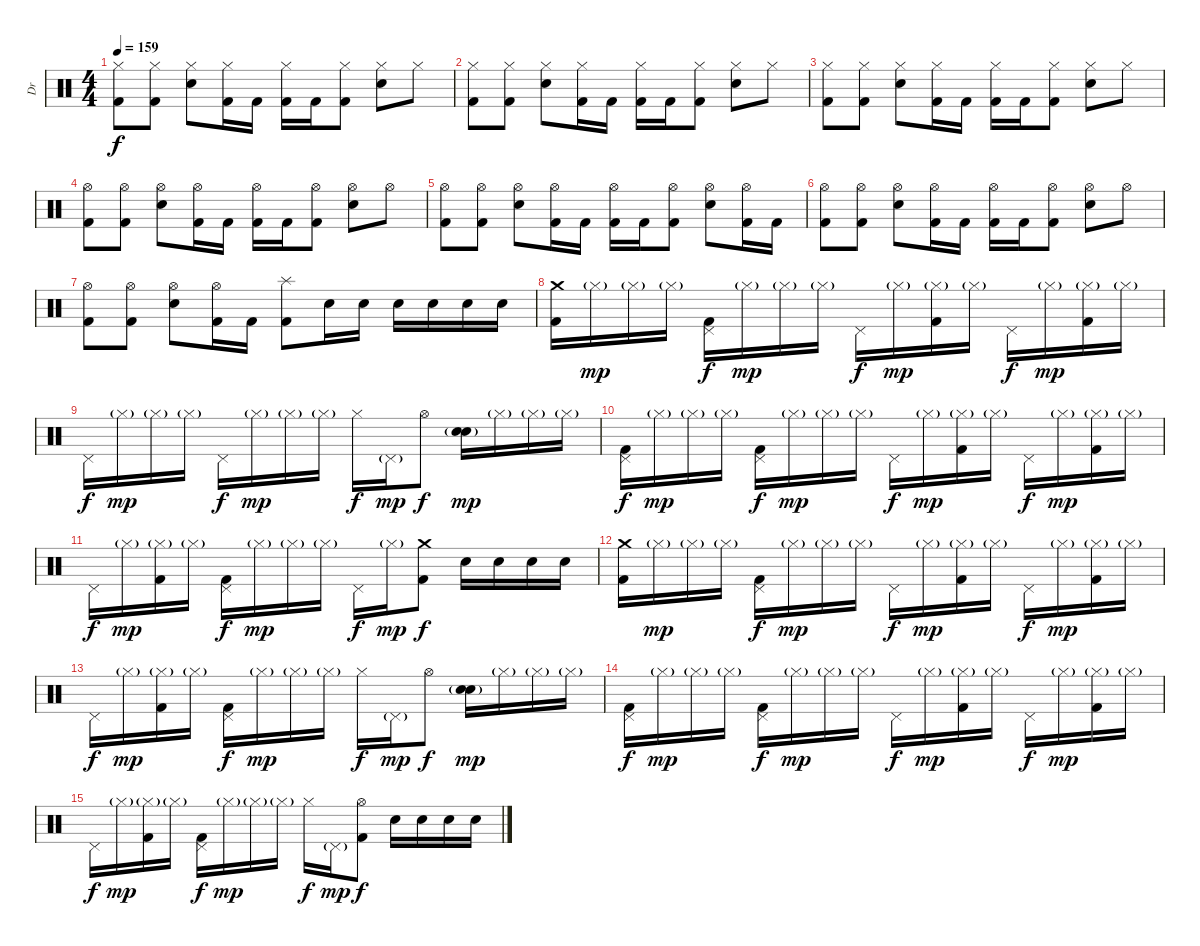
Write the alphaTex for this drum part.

\track ("Dr" "Dr") {instrument percussion}
\staff {score}
\articulation defaults
\ts (4 4)
\tempo 159
\clef neutral
\ks c
("Hi-Hat (closed)" "Kick (hit) 2").8{dy f} ("Hi-Hat (closed)" "Kick (hit) 2").8 ("Hi-Hat (closed)" "Electric Snare (hit)").8 ("Hi-Hat (closed)" "Kick (hit) 2").16 "Kick (hit) 2".16 ("Hi-Hat (closed)" "Kick (hit) 2").16 "Kick (hit) 2".16 ("Hi-Hat (closed)" "Kick (hit) 2").8 ("Hi-Hat (closed)" "Electric Snare (hit)").8 "Hi-Hat (closed)".8 |
("Hi-Hat (closed)" "Kick (hit) 2").8 ("Hi-Hat (closed)" "Kick (hit) 2").8 ("Hi-Hat (closed)" "Electric Snare (hit)").8 ("Hi-Hat (closed)" "Kick (hit) 2").16 "Kick (hit) 2".16 ("Hi-Hat (closed)" "Kick (hit) 2").16 "Kick (hit) 2".16 ("Hi-Hat (closed)" "Kick (hit) 2").8 ("Hi-Hat (closed)" "Electric Snare (hit)").8 "Hi-Hat (closed)".8 |
("Hi-Hat (closed)" "Kick (hit) 2").8 ("Hi-Hat (closed)" "Kick (hit) 2").8 ("Hi-Hat (closed)" "Electric Snare (hit)").8 ("Hi-Hat (closed)" "Kick (hit) 2").16 "Kick (hit) 2".16 ("Hi-Hat (closed)" "Kick (hit) 2").16 "Kick (hit) 2".16 ("Hi-Hat (closed)" "Kick (hit) 2").8 ("Hi-Hat (closed)" "Electric Snare (hit)").8 "Hi-Hat (closed)".8 |
("Hi-Hat (open)" "Kick (hit) 2").8 ("Hi-Hat (open)" "Kick (hit) 2").8 ("Hi-Hat (open)" "Electric Snare (hit)").8 ("Hi-Hat (open)" "Kick (hit) 2").16 "Kick (hit) 2".16 ("Hi-Hat (open)" "Kick (hit) 2").16 "Kick (hit) 2".16 ("Hi-Hat (open)" "Kick (hit) 2").8 ("Hi-Hat (open)" "Electric Snare (hit)").8 "Hi-Hat (open)".8 |
("Hi-Hat (open)" "Kick (hit) 2").8 ("Hi-Hat (open)" "Kick (hit) 2").8 ("Hi-Hat (open)" "Electric Snare (hit)").8 ("Hi-Hat (open)" "Kick (hit) 2").16 "Kick (hit) 2".16 ("Hi-Hat (open)" "Kick (hit) 2").16 "Kick (hit) 2".16 ("Hi-Hat (open)" "Kick (hit) 2").8 ("Hi-Hat (open)" "Electric Snare (hit)").8 ("Hi-Hat (open)" "Kick (hit) 2").16 "Kick (hit) 2".16 |
("Hi-Hat (open)" "Kick (hit) 2").8 ("Hi-Hat (open)" "Kick (hit) 2").8 ("Hi-Hat (open)" "Electric Snare (hit)").8 ("Hi-Hat (open)" "Kick (hit) 2").16 "Kick (hit) 2".16 ("Hi-Hat (open)" "Kick (hit) 2").16 "Kick (hit) 2".16 ("Hi-Hat (open)" "Kick (hit) 2").8 ("Hi-Hat (open)" "Electric Snare (hit)").8 "Hi-Hat (open)".8 |
("Hi-Hat (open)" "Kick (hit) 2").8 ("Hi-Hat (open)" "Kick (hit) 2").8 ("Hi-Hat (open)" "Electric Snare (hit)").8 ("Hi-Hat (open)" "Kick (hit) 2").16 "Kick (hit) 2".16 ("Splash (hit)" "Kick (hit) 2").8 "Electric Snare (hit)".16 "Electric Snare (hit)".16 "Electric Snare (hit)".16 "Electric Snare (hit)".16 "Electric Snare (hit)".16 "Electric Snare (hit)".16 |
("Crash medium (hit)" "Kick (hit) 2").16 "Hi-Hat (closed)"{g}.16{dy mp} "Hi-Hat (closed)"{g}.16 "Hi-Hat (closed)"{g}.16 ("Pedal Hi-Hat (hit)" "Kick (hit) 2").16{dy f} "Hi-Hat (closed)"{g}.16{dy mp} "Hi-Hat (closed)"{g}.16 "Hi-Hat (closed)"{g}.16 "Pedal Hi-Hat (hit)".16{dy f} "Hi-Hat (closed)"{g}.16{dy mp} ("Hi-Hat (closed)"{g} "Kick (hit) 2").16 "Hi-Hat (closed)"{g}.16 "Pedal Hi-Hat (hit)".16{dy f} "Hi-Hat (closed)"{g}.16{dy mp} ("Hi-Hat (closed)"{g} "Kick (hit) 2").16 "Hi-Hat (closed)"{g}.16 |
"Pedal Hi-Hat (hit)".16{dy f} "Hi-Hat (closed)"{g}.16{dy mp} "Hi-Hat (closed)"{g}.16 "Hi-Hat (closed)"{g}.16 "Pedal Hi-Hat (hit)".16{dy f} "Hi-Hat (closed)"{g}.16{dy mp} "Hi-Hat (closed)"{g}.16 "Hi-Hat (closed)"{g}.16 "Hi-Hat (closed)".16{dy f} "Pedal Hi-Hat (hit)"{g}.16{dy mp} "Hi-Hat (open)".8{dy f} ("Snare (hit) 2" "Electric Snare (hit)"{g}).16{dy mp} "Hi-Hat (closed)"{g}.16 "Hi-Hat (closed)"{g}.16 "Hi-Hat (closed)"{g}.16 |
("Pedal Hi-Hat (hit)" "Kick (hit) 2").16{dy f} "Hi-Hat (closed)"{g}.16{dy mp} "Hi-Hat (closed)"{g}.16 "Hi-Hat (closed)"{g}.16 ("Pedal Hi-Hat (hit)" "Kick (hit) 2").16{dy f} "Hi-Hat (closed)"{g}.16{dy mp} "Hi-Hat (closed)"{g}.16 "Hi-Hat (closed)"{g}.16 "Pedal Hi-Hat (hit)".16{dy f} "Hi-Hat (closed)"{g}.16{dy mp} ("Hi-Hat (closed)"{g} "Kick (hit) 2").16 "Hi-Hat (closed)"{g}.16 "Pedal Hi-Hat (hit)".16{dy f} "Hi-Hat (closed)"{g}.16{dy mp} ("Hi-Hat (closed)"{g} "Kick (hit) 2").16 "Hi-Hat (closed)"{g}.16 |
"Pedal Hi-Hat (hit)".16{dy f} "Hi-Hat (closed)"{g}.16{dy mp} ("Hi-Hat (closed)"{g} "Kick (hit) 2").16 "Hi-Hat (closed)"{g}.16 ("Pedal Hi-Hat (hit)" "Kick (hit) 2").16{dy f} "Hi-Hat (closed)"{g}.16{dy mp} "Hi-Hat (closed)"{g}.16 "Hi-Hat (closed)"{g}.16 "Pedal Hi-Hat (hit)".16{dy f} "Hi-Hat (closed)"{g}.16{dy mp} ("Crash medium (hit)" "Kick (hit) 2").8{dy f} "Electric Snare (hit)".16 "Electric Snare (hit)".16 "Electric Snare (hit)".16 "Electric Snare (hit)".16 |
("Crash medium (hit)" "Kick (hit) 2").16 "Hi-Hat (closed)"{g}.16{dy mp} "Hi-Hat (closed)"{g}.16 "Hi-Hat (closed)"{g}.16 ("Pedal Hi-Hat (hit)" "Kick (hit) 2").16{dy f} "Hi-Hat (closed)"{g}.16{dy mp} "Hi-Hat (closed)"{g}.16 "Hi-Hat (closed)"{g}.16 "Pedal Hi-Hat (hit)".16{dy f} "Hi-Hat (closed)"{g}.16{dy mp} ("Hi-Hat (closed)"{g} "Kick (hit) 2").16 "Hi-Hat (closed)"{g}.16 "Pedal Hi-Hat (hit)".16{dy f} "Hi-Hat (closed)"{g}.16{dy mp} ("Hi-Hat (closed)"{g} "Kick (hit) 2").16 "Hi-Hat (closed)"{g}.16 |
"Pedal Hi-Hat (hit)".16{dy f} "Hi-Hat (closed)"{g}.16{dy mp} ("Hi-Hat (closed)"{g} "Kick (hit) 2").16 "Hi-Hat (closed)"{g}.16 ("Pedal Hi-Hat (hit)" "Kick (hit) 2").16{dy f} "Hi-Hat (closed)"{g}.16{dy mp} "Hi-Hat (closed)"{g}.16 "Hi-Hat (closed)"{g}.16 "Hi-Hat (closed)".16{dy f} "Pedal Hi-Hat (hit)"{g}.16{dy mp} "Hi-Hat (open)".8{dy f} ("Snare (hit) 2" "Electric Snare (hit)"{g}).16{dy mp} "Hi-Hat (closed)"{g}.16 "Hi-Hat (closed)"{g}.16 "Hi-Hat (closed)"{g}.16 |
("Pedal Hi-Hat (hit)" "Kick (hit) 2").16{dy f} "Hi-Hat (closed)"{g}.16{dy mp} "Hi-Hat (closed)"{g}.16 "Hi-Hat (closed)"{g}.16 ("Pedal Hi-Hat (hit)" "Kick (hit) 2").16{dy f} "Hi-Hat (closed)"{g}.16{dy mp} "Hi-Hat (closed)"{g}.16 "Hi-Hat (closed)"{g}.16 "Pedal Hi-Hat (hit)".16{dy f} "Hi-Hat (closed)"{g}.16{dy mp} ("Hi-Hat (closed)"{g} "Kick (hit) 2").16 "Hi-Hat (closed)"{g}.16 "Pedal Hi-Hat (hit)".16{dy f} "Hi-Hat (closed)"{g}.16{dy mp} ("Hi-Hat (closed)"{g} "Kick (hit) 2").16 "Hi-Hat (closed)"{g}.16 |
"Pedal Hi-Hat (hit)".16{dy f} "Hi-Hat (closed)"{g}.16{dy mp} ("Hi-Hat (closed)"{g} "Kick (hit) 2").16 "Hi-Hat (closed)"{g}.16 ("Pedal Hi-Hat (hit)" "Kick (hit) 2").16{dy f} "Hi-Hat (closed)"{g}.16{dy mp} "Hi-Hat (closed)"{g}.16 "Hi-Hat (closed)"{g}.16 "Hi-Hat (closed)".16{dy f} "Pedal Hi-Hat (hit)"{g}.16{dy mp} ("Hi-Hat (open)" "Kick (hit) 2").8{dy f} "Snare (hit) 2".16 "Snare (hit) 2".16 "Snare (hit) 2".16 "Snare (hit) 2".16
